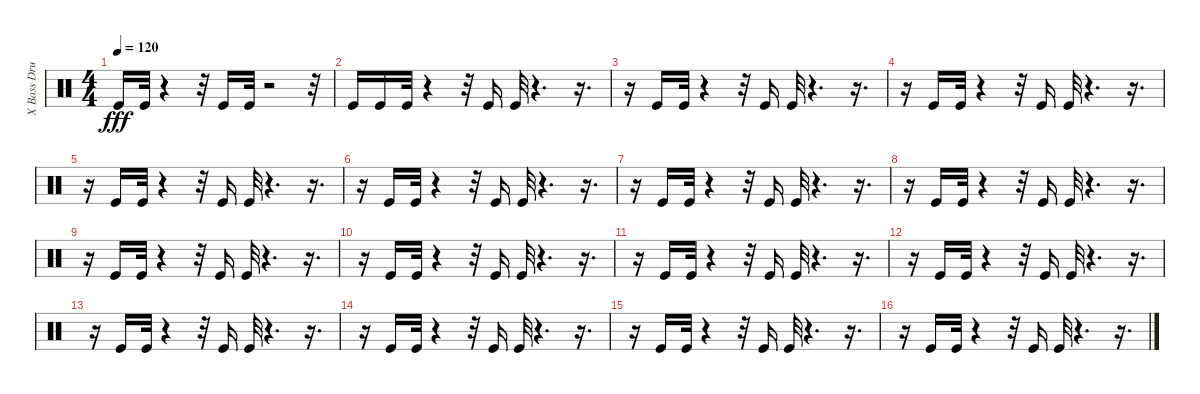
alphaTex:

\track ("X Bass Drum         " "X Bass Dru") {instrument percussion}
\staff {score}
\articulation defaults
\ts (4 4)
\tempo 120
\clef neutral
\ks c "Kick (hit)".16{dy fff} "Kick (hit)".32
r.4 r.32 "Kick (hit)".16 "Kick (hit)".32 r.2 r.32 |
"Kick (hit)".16 "Kick (hit)".16 "Kick (hit)".32 r.4 r.32 "Kick (hit)".16 "Kick (hit)".32 r.4{d} r.16{d} |
r.16 "Kick (hit)".16 "Kick (hit)".32 r.4 r.32 "Kick (hit)".16 "Kick (hit)".32 r.4{d} r.16{d} |
r.16 "Kick (hit)".16 "Kick (hit)".32 r.4 r.32 "Kick (hit)".16 "Kick (hit)".32 r.4{d} r.16{d} |
r.16 "Kick (hit)".16 "Kick (hit)".32 r.4 r.32 "Kick (hit)".16 "Kick (hit)".32 r.4{d} r.16{d} |
r.16 "Kick (hit)".16 "Kick (hit)".32 r.4 r.32 "Kick (hit)".16 "Kick (hit)".32 r.4{d} r.16{d} |
r.16 "Kick (hit)".16 "Kick (hit)".32 r.4 r.32 "Kick (hit)".16 "Kick (hit)".32 r.4{d} r.16{d} |
r.16 "Kick (hit)".16 "Kick (hit)".32 r.4 r.32 "Kick (hit)".16 "Kick (hit)".32 r.4{d} r.16{d} |
r.16 "Kick (hit)".16 "Kick (hit)".32 r.4 r.32 "Kick (hit)".16 "Kick (hit)".32 r.4{d} r.16{d} |
r.16 "Kick (hit)".16 "Kick (hit)".32 r.4 r.32 "Kick (hit)".16 "Kick (hit)".32 r.4{d} r.16{d} |
r.16 "Kick (hit)".16 "Kick (hit)".32 r.4 r.32 "Kick (hit)".16 "Kick (hit)".32 r.4{d} r.16{d} |
r.16 "Kick (hit)".16 "Kick (hit)".32 r.4 r.32 "Kick (hit)".16 "Kick (hit)".32 r.4{d} r.16{d} |
r.16 "Kick (hit)".16 "Kick (hit)".32 r.4 r.32 "Kick (hit)".16 "Kick (hit)".32 r.4{d} r.16{d} |
r.16 "Kick (hit)".16 "Kick (hit)".32 r.4 r.32 "Kick (hit)".16 "Kick (hit)".32 r.4{d} r.16{d} |
r.16 "Kick (hit)".16 "Kick (hit)".32 r.4 r.32 "Kick (hit)".16 "Kick (hit)".32 r.4{d} r.16{d} |
r.16 "Kick (hit)".16 "Kick (hit)".32 r.4 r.32 "Kick (hit)".16 "Kick (hit)".32 r.4{d} r.16{d}
